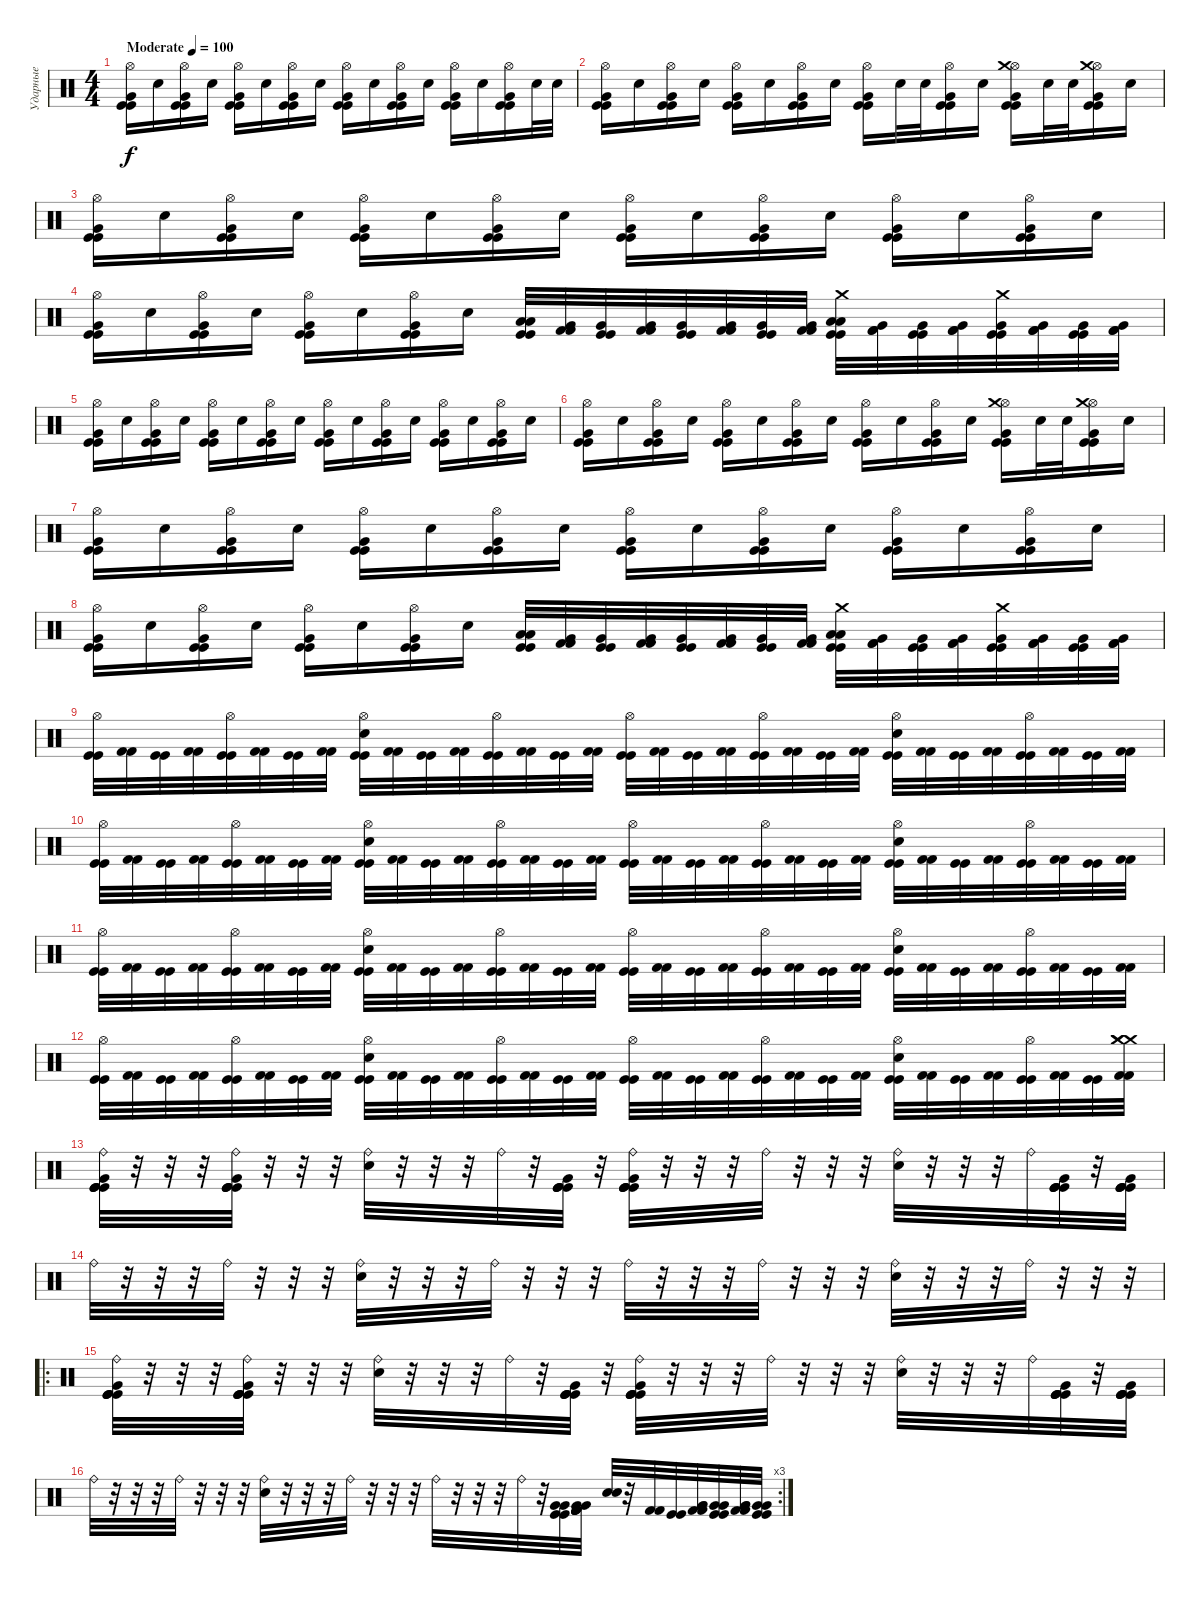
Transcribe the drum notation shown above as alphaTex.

\track ("Ударные" "Ударные") {instrument percussion}
\staff {score}
\articulation defaults
\ts (4 4)
\tempo (100 "Moderate")
\clef neutral
\ks c
("Kick (hit)" "Very Low Tom (hit)" "Kick (hit)" "Hi-Hat (open)").16{dy f} "Electric Snare (hit)".16 ("Kick (hit)" "Very Low Tom (hit)" "Kick (hit)" "Hi-Hat (open)").16 "Electric Snare (hit)".16 ("Kick (hit)" "Very Low Tom (hit)" "Kick (hit)" "Hi-Hat (open)").16 "Electric Snare (hit)".16 ("Kick (hit)" "Very Low Tom (hit)" "Kick (hit)" "Hi-Hat (open)").16 "Electric Snare (hit)".16 ("Kick (hit)" "Very Low Tom (hit)" "Kick (hit)" "Hi-Hat (open)").16 "Electric Snare (hit)".16 ("Kick (hit)" "Very Low Tom (hit)" "Kick (hit)" "Hi-Hat (open)").16 "Electric Snare (hit)".16 ("Kick (hit)" "Very Low Tom (hit)" "Kick (hit)" "Hi-Hat (open)").16 "Electric Snare (hit)".16 ("Kick (hit)" "Very Low Tom (hit)" "Kick (hit)" "Hi-Hat (open)").16 "Electric Snare (hit)".32 "Electric Snare (hit)".32 |
("Kick (hit)" "Very Low Tom (hit)" "Kick (hit)" "Hi-Hat (open)").16 "Electric Snare (hit)".16 ("Kick (hit)" "Very Low Tom (hit)" "Kick (hit)" "Hi-Hat (open)").16 "Electric Snare (hit)".16 ("Kick (hit)" "Very Low Tom (hit)" "Kick (hit)" "Hi-Hat (open)").16 "Electric Snare (hit)".16 ("Kick (hit)" "Very Low Tom (hit)" "Kick (hit)" "Hi-Hat (open)").16 "Electric Snare (hit)".16 ("Kick (hit)" "Very Low Tom (hit)" "Kick (hit)" "Hi-Hat (open)").16 "Electric Snare (hit)".32 "Electric Snare (hit)".32 ("Kick (hit)" "Very Low Tom (hit)" "Kick (hit)" "Hi-Hat (open)").16 "Electric Snare (hit)".16 ("Kick (hit)" "Very Low Tom (hit)" "Kick (hit)" "Hi-Hat (open)" "Crash medium (hit)").16 "Electric Snare (hit)".32 "Electric Snare (hit)".32 ("Kick (hit)" "Very Low Tom (hit)" "Kick (hit)" "Hi-Hat (open)" "Crash medium (hit)").16 "Electric Snare (hit)".16 |
("Kick (hit)" "Very Low Tom (hit)" "Kick (hit)" "Hi-Hat (open)").16 "Electric Snare (hit)".16 ("Kick (hit)" "Very Low Tom (hit)" "Kick (hit)" "Hi-Hat (open)").16 "Electric Snare (hit)".16 ("Kick (hit)" "Very Low Tom (hit)" "Kick (hit)" "Hi-Hat (open)").16 "Electric Snare (hit)".16 ("Kick (hit)" "Very Low Tom (hit)" "Kick (hit)" "Hi-Hat (open)").16 "Electric Snare (hit)".16 ("Kick (hit)" "Very Low Tom (hit)" "Kick (hit)" "Hi-Hat (open)").16 "Electric Snare (hit)".16 ("Kick (hit)" "Very Low Tom (hit)" "Kick (hit)" "Hi-Hat (open)").16 "Electric Snare (hit)".16 ("Kick (hit)" "Very Low Tom (hit)" "Kick (hit)" "Hi-Hat (open)").16 "Electric Snare (hit)".16 ("Kick (hit)" "Very Low Tom (hit)" "Kick (hit)" "Hi-Hat (open)").16 "Electric Snare (hit)".16 |
("Kick (hit)" "Very Low Tom (hit)" "Kick (hit)" "Hi-Hat (open)").16 "Electric Snare (hit)".16 ("Kick (hit)" "Very Low Tom (hit)" "Kick (hit)" "Hi-Hat (open)").16 "Electric Snare (hit)".16 ("Kick (hit)" "Very Low Tom (hit)" "Kick (hit)" "Hi-Hat (open)").16 "Electric Snare (hit)".16 ("Kick (hit)" "Very Low Tom (hit)" "Kick (hit)" "Hi-Hat (open)").16 "Electric Snare (hit)".16 ("Low Tom (hit)" "Kick (hit)" "Kick (hit)" "Low Tom (hit)").32 ("Very Low Tom (hit)" "Kick (hit) 2" "Kick (hit) 2").32 ("Very Low Tom (hit)" "Kick (hit)" "Kick (hit)").32 ("Very Low Tom (hit)" "Kick (hit) 2" "Kick (hit) 2").32 ("Very Low Tom (hit)" "Kick (hit)" "Kick (hit)").32 ("Very Low Tom (hit)" "Kick (hit) 2" "Kick (hit) 2").32 ("Very Low Tom (hit)" "Kick (hit)" "Kick (hit)").32 ("Very Low Tom (hit)" "Kick (hit) 2" "Kick (hit) 2").32 ("Low Tom (hit)" "Kick (hit)" "Kick (hit)" "Low Tom (hit)" "Crash medium (hit)").32 ("Very Low Tom (hit)" "Kick (hit) 2" "Kick (hit) 2").32 ("Very Low Tom (hit)" "Kick (hit)" "Kick (hit)").32 ("Very Low Tom (hit)" "Kick (hit) 2" "Kick (hit) 2").32 ("Very Low Tom (hit)" "Kick (hit)" "Kick (hit)" "Crash medium (hit)").32 ("Very Low Tom (hit)" "Kick (hit) 2" "Kick (hit) 2").32 ("Very Low Tom (hit)" "Kick (hit)" "Kick (hit)").32 ("Very Low Tom (hit)" "Kick (hit) 2" "Kick (hit) 2").32 |
("Kick (hit)" "Very Low Tom (hit)" "Kick (hit)" "Hi-Hat (open)").16 "Electric Snare (hit)".16 ("Kick (hit)" "Very Low Tom (hit)" "Kick (hit)" "Hi-Hat (open)").16 "Electric Snare (hit)".16 ("Kick (hit)" "Very Low Tom (hit)" "Kick (hit)" "Hi-Hat (open)").16 "Electric Snare (hit)".16 ("Kick (hit)" "Very Low Tom (hit)" "Kick (hit)" "Hi-Hat (open)").16 "Electric Snare (hit)".16 ("Kick (hit)" "Very Low Tom (hit)" "Kick (hit)" "Hi-Hat (open)").16 "Electric Snare (hit)".16 ("Kick (hit)" "Very Low Tom (hit)" "Kick (hit)" "Hi-Hat (open)").16 "Electric Snare (hit)".16 ("Kick (hit)" "Very Low Tom (hit)" "Kick (hit)" "Hi-Hat (open)").16 "Electric Snare (hit)".16 ("Kick (hit)" "Very Low Tom (hit)" "Kick (hit)" "Hi-Hat (open)").16 "Electric Snare (hit)".16 |
("Kick (hit)" "Very Low Tom (hit)" "Kick (hit)" "Hi-Hat (open)").16 "Electric Snare (hit)".16 ("Kick (hit)" "Very Low Tom (hit)" "Kick (hit)" "Hi-Hat (open)").16 "Electric Snare (hit)".16 ("Kick (hit)" "Very Low Tom (hit)" "Kick (hit)" "Hi-Hat (open)").16 "Electric Snare (hit)".16 ("Kick (hit)" "Very Low Tom (hit)" "Kick (hit)" "Hi-Hat (open)").16 "Electric Snare (hit)".16 ("Kick (hit)" "Very Low Tom (hit)" "Kick (hit)" "Hi-Hat (open)").16 "Electric Snare (hit)".16 ("Kick (hit)" "Very Low Tom (hit)" "Kick (hit)" "Hi-Hat (open)").16 "Electric Snare (hit)".16 ("Kick (hit)" "Very Low Tom (hit)" "Kick (hit)" "Hi-Hat (open)" "Crash medium (hit)").16 "Electric Snare (hit)".32 "Electric Snare (hit)".32 ("Kick (hit)" "Very Low Tom (hit)" "Kick (hit)" "Hi-Hat (open)" "Crash medium (hit)").16 "Electric Snare (hit)".16 |
("Kick (hit)" "Very Low Tom (hit)" "Kick (hit)" "Hi-Hat (open)").16 "Electric Snare (hit)".16 ("Kick (hit)" "Very Low Tom (hit)" "Kick (hit)" "Hi-Hat (open)").16 "Electric Snare (hit)".16 ("Kick (hit)" "Very Low Tom (hit)" "Kick (hit)" "Hi-Hat (open)").16 "Electric Snare (hit)".16 ("Kick (hit)" "Very Low Tom (hit)" "Kick (hit)" "Hi-Hat (open)").16 "Electric Snare (hit)".16 ("Kick (hit)" "Very Low Tom (hit)" "Kick (hit)" "Hi-Hat (open)").16 "Electric Snare (hit)".16 ("Kick (hit)" "Very Low Tom (hit)" "Kick (hit)" "Hi-Hat (open)").16 "Electric Snare (hit)".16 ("Kick (hit)" "Very Low Tom (hit)" "Kick (hit)" "Hi-Hat (open)").16 "Electric Snare (hit)".16 ("Kick (hit)" "Very Low Tom (hit)" "Kick (hit)" "Hi-Hat (open)").16 "Electric Snare (hit)".16 |
("Kick (hit)" "Very Low Tom (hit)" "Kick (hit)" "Hi-Hat (open)").16 "Electric Snare (hit)".16 ("Kick (hit)" "Very Low Tom (hit)" "Kick (hit)" "Hi-Hat (open)").16 "Electric Snare (hit)".16 ("Kick (hit)" "Very Low Tom (hit)" "Kick (hit)" "Hi-Hat (open)").16 "Electric Snare (hit)".16 ("Kick (hit)" "Very Low Tom (hit)" "Kick (hit)" "Hi-Hat (open)").16 "Electric Snare (hit)".16 ("Low Tom (hit)" "Kick (hit)" "Kick (hit)" "Low Tom (hit)").32 ("Very Low Tom (hit)" "Kick (hit) 2" "Kick (hit) 2").32 ("Very Low Tom (hit)" "Kick (hit)" "Kick (hit)").32 ("Very Low Tom (hit)" "Kick (hit) 2" "Kick (hit) 2").32 ("Very Low Tom (hit)" "Kick (hit)" "Kick (hit)").32 ("Very Low Tom (hit)" "Kick (hit) 2" "Kick (hit) 2").32 ("Very Low Tom (hit)" "Kick (hit)" "Kick (hit)").32 ("Very Low Tom (hit)" "Kick (hit) 2" "Kick (hit) 2").32 ("Low Tom (hit)" "Kick (hit)" "Kick (hit)" "Low Tom (hit)" "Crash medium (hit)").32 ("Very Low Tom (hit)" "Kick (hit) 2" "Kick (hit) 2").32 ("Very Low Tom (hit)" "Kick (hit)" "Kick (hit)").32 ("Very Low Tom (hit)" "Kick (hit) 2" "Kick (hit) 2").32 ("Very Low Tom (hit)" "Kick (hit)" "Kick (hit)" "Crash medium (hit)").32 ("Very Low Tom (hit)" "Kick (hit) 2" "Kick (hit) 2").32 ("Very Low Tom (hit)" "Kick (hit)" "Kick (hit)").32 ("Very Low Tom (hit)" "Kick (hit) 2" "Kick (hit) 2").32 |
("Hi-Hat (open)" "Kick (hit)" "Kick (hit)").32 ("Kick (hit) 2" "Kick (hit) 2").32 ("Kick (hit)" "Kick (hit)").32 ("Kick (hit) 2" "Kick (hit) 2").32 ("Hi-Hat (open)" "Kick (hit)" "Kick (hit)").32 ("Kick (hit) 2" "Kick (hit) 2").32 ("Kick (hit)" "Kick (hit)").32 ("Kick (hit) 2" "Kick (hit) 2").32 ("Hi-Hat (open)" "Kick (hit)" "Kick (hit)" "Electric Snare (hit)").32 ("Kick (hit) 2" "Kick (hit) 2").32 ("Kick (hit)" "Kick (hit)").32 ("Kick (hit) 2" "Kick (hit) 2").32 ("Hi-Hat (open)" "Kick (hit)" "Kick (hit)").32 ("Kick (hit) 2" "Kick (hit) 2").32 ("Kick (hit)" "Kick (hit)").32 ("Kick (hit) 2" "Kick (hit) 2").32 ("Hi-Hat (open)" "Kick (hit)" "Kick (hit)").32 ("Kick (hit) 2" "Kick (hit) 2").32 ("Kick (hit)" "Kick (hit)").32 ("Kick (hit) 2" "Kick (hit) 2").32 ("Hi-Hat (open)" "Kick (hit)" "Kick (hit)").32 ("Kick (hit) 2" "Kick (hit) 2").32 ("Kick (hit)" "Kick (hit)").32 ("Kick (hit) 2" "Kick (hit) 2").32 ("Hi-Hat (open)" "Kick (hit)" "Kick (hit)" "Electric Snare (hit)").32 ("Kick (hit) 2" "Kick (hit) 2").32 ("Kick (hit)" "Kick (hit)").32 ("Kick (hit) 2" "Kick (hit) 2").32 ("Hi-Hat (open)" "Kick (hit)" "Kick (hit)").32 ("Kick (hit) 2" "Kick (hit) 2").32 ("Kick (hit)" "Kick (hit)").32 ("Kick (hit) 2" "Kick (hit) 2").32 |
("Hi-Hat (open)" "Kick (hit)" "Kick (hit)").32 ("Kick (hit) 2" "Kick (hit) 2").32 ("Kick (hit)" "Kick (hit)").32 ("Kick (hit) 2" "Kick (hit) 2").32 ("Hi-Hat (open)" "Kick (hit)" "Kick (hit)").32 ("Kick (hit) 2" "Kick (hit) 2").32 ("Kick (hit)" "Kick (hit)").32 ("Kick (hit) 2" "Kick (hit) 2").32 ("Hi-Hat (open)" "Kick (hit)" "Kick (hit)" "Electric Snare (hit)").32 ("Kick (hit) 2" "Kick (hit) 2").32 ("Kick (hit)" "Kick (hit)").32 ("Kick (hit) 2" "Kick (hit) 2").32 ("Hi-Hat (open)" "Kick (hit)" "Kick (hit)").32 ("Kick (hit) 2" "Kick (hit) 2").32 ("Kick (hit)" "Kick (hit)").32 ("Kick (hit) 2" "Kick (hit) 2").32 ("Hi-Hat (open)" "Kick (hit)" "Kick (hit)").32 ("Kick (hit) 2" "Kick (hit) 2").32 ("Kick (hit)" "Kick (hit)").32 ("Kick (hit) 2" "Kick (hit) 2").32 ("Hi-Hat (open)" "Kick (hit)" "Kick (hit)").32 ("Kick (hit) 2" "Kick (hit) 2").32 ("Kick (hit)" "Kick (hit)").32 ("Kick (hit) 2" "Kick (hit) 2").32 ("Hi-Hat (open)" "Kick (hit)" "Kick (hit)" "Electric Snare (hit)").32 ("Kick (hit) 2" "Kick (hit) 2").32 ("Kick (hit)" "Kick (hit)").32 ("Kick (hit) 2" "Kick (hit) 2").32 ("Hi-Hat (open)" "Kick (hit)" "Kick (hit)").32 ("Kick (hit) 2" "Kick (hit) 2").32 ("Kick (hit)" "Kick (hit)").32 ("Kick (hit) 2" "Kick (hit) 2").32 |
("Hi-Hat (open)" "Kick (hit)" "Kick (hit)").32 ("Kick (hit) 2" "Kick (hit) 2").32 ("Kick (hit)" "Kick (hit)").32 ("Kick (hit) 2" "Kick (hit) 2").32 ("Hi-Hat (open)" "Kick (hit)" "Kick (hit)").32 ("Kick (hit) 2" "Kick (hit) 2").32 ("Kick (hit)" "Kick (hit)").32 ("Kick (hit) 2" "Kick (hit) 2").32 ("Hi-Hat (open)" "Kick (hit)" "Kick (hit)" "Electric Snare (hit)").32 ("Kick (hit) 2" "Kick (hit) 2").32 ("Kick (hit)" "Kick (hit)").32 ("Kick (hit) 2" "Kick (hit) 2").32 ("Hi-Hat (open)" "Kick (hit)" "Kick (hit)").32 ("Kick (hit) 2" "Kick (hit) 2").32 ("Kick (hit)" "Kick (hit)").32 ("Kick (hit) 2" "Kick (hit) 2").32 ("Hi-Hat (open)" "Kick (hit)" "Kick (hit)").32 ("Kick (hit) 2" "Kick (hit) 2").32 ("Kick (hit)" "Kick (hit)").32 ("Kick (hit) 2" "Kick (hit) 2").32 ("Hi-Hat (open)" "Kick (hit)" "Kick (hit)").32 ("Kick (hit) 2" "Kick (hit) 2").32 ("Kick (hit)" "Kick (hit)").32 ("Kick (hit) 2" "Kick (hit) 2").32 ("Hi-Hat (open)" "Kick (hit)" "Kick (hit)" "Electric Snare (hit)").32 ("Kick (hit) 2" "Kick (hit) 2").32 ("Kick (hit)" "Kick (hit)").32 ("Kick (hit) 2" "Kick (hit) 2").32 ("Hi-Hat (open)" "Kick (hit)" "Kick (hit)").32 ("Kick (hit) 2" "Kick (hit) 2").32 ("Kick (hit)" "Kick (hit)").32 ("Kick (hit) 2" "Kick (hit) 2").32 |
("Hi-Hat (open)" "Kick (hit)" "Kick (hit)").32 ("Kick (hit) 2" "Kick (hit) 2").32 ("Kick (hit)" "Kick (hit)").32 ("Kick (hit) 2" "Kick (hit) 2").32 ("Hi-Hat (open)" "Kick (hit)" "Kick (hit)").32 ("Kick (hit) 2" "Kick (hit) 2").32 ("Kick (hit)" "Kick (hit)").32 ("Kick (hit) 2" "Kick (hit) 2").32 ("Hi-Hat (open)" "Kick (hit)" "Kick (hit)" "Electric Snare (hit)").32 ("Kick (hit) 2" "Kick (hit) 2").32 ("Kick (hit)" "Kick (hit)").32 ("Kick (hit) 2" "Kick (hit) 2").32 ("Hi-Hat (open)" "Kick (hit)" "Kick (hit)").32 ("Kick (hit) 2" "Kick (hit) 2").32 ("Kick (hit)" "Kick (hit)").32 ("Kick (hit) 2" "Kick (hit) 2").32 ("Hi-Hat (open)" "Kick (hit)" "Kick (hit)").32 ("Kick (hit) 2" "Kick (hit) 2").32 ("Kick (hit)" "Kick (hit)").32 ("Kick (hit) 2" "Kick (hit) 2").32 ("Hi-Hat (open)" "Kick (hit)" "Kick (hit)").32 ("Kick (hit) 2" "Kick (hit) 2").32 ("Kick (hit)" "Kick (hit)").32 ("Kick (hit) 2" "Kick (hit) 2").32 ("Hi-Hat (open)" "Kick (hit)" "Kick (hit)" "Electric Snare (hit)").32 ("Kick (hit) 2" "Kick (hit) 2").32 ("Kick (hit)" "Kick (hit)").32 ("Kick (hit) 2" "Kick (hit) 2").32 ("Hi-Hat (open)" "Kick (hit)" "Kick (hit)").32 ("Kick (hit) 2" "Kick (hit) 2").32 ("Kick (hit)" "Kick (hit)").32 ("Kick (hit) 2" "Kick (hit) 2" "Crash medium (hit)" "Crash medium (hit)" "Crash medium (hit)").32 |
("Ride (bell)" "Kick (hit)" "Kick (hit)" "Very Low Tom (hit)" "Kick (hit)" "Kick (hit)").32 r.32 r.32 r.32 ("Ride (bell)" "Kick (hit)" "Kick (hit)" "Very Low Tom (hit)" "Kick (hit)" "Kick (hit)").32 r.32 r.32 r.32 ("Ride (bell)" "Electric Snare (hit)").32 r.32 r.32 r.32 "Ride (bell)".32 r.32 ("Kick (hit)" "Kick (hit)" "Very Low Tom (hit)" "Kick (hit)" "Kick (hit)").32 r.32 ("Ride (bell)" "Kick (hit)" "Kick (hit)" "Very Low Tom (hit)" "Kick (hit)" "Kick (hit)").32 r.32 r.32 r.32 "Ride (bell)".32 r.32 r.32 r.32 ("Ride (bell)" "Electric Snare (hit)").32 r.32 r.32 r.32 "Ride (bell)".32 ("Kick (hit)" "Kick (hit)" "Very Low Tom (hit)" "Kick (hit)" "Kick (hit)").32 r.32 ("Kick (hit)" "Kick (hit)" "Very Low Tom (hit)" "Kick (hit)" "Kick (hit)").32 |
"Ride (bell)".32 r.32 r.32 r.32 "Ride (bell)".32 r.32 r.32 r.32 ("Ride (bell)" "Electric Snare (hit)").32 r.32 r.32 r.32 "Ride (bell)".32 r.32 r.32 r.32 "Ride (bell)".32 r.32 r.32 r.32 "Ride (bell)".32 r.32 r.32 r.32 ("Ride (bell)" "Electric Snare (hit)").32 r.32 r.32 r.32 "Ride (bell)".32 r.32 r.32 r.32 |
\ro
("Ride (bell)" "Kick (hit)" "Kick (hit)" "Very Low Tom (hit)" "Kick (hit)" "Kick (hit)").32 r.32 r.32 r.32 ("Ride (bell)" "Kick (hit)" "Kick (hit)" "Very Low Tom (hit)" "Kick (hit)" "Kick (hit)").32 r.32 r.32 r.32 ("Ride (bell)" "Electric Snare (hit)").32 r.32 r.32 r.32 "Ride (bell)".32 r.32 ("Kick (hit)" "Kick (hit)" "Very Low Tom (hit)" "Kick (hit)" "Kick (hit)").32 r.32 ("Ride (bell)" "Kick (hit)" "Kick (hit)" "Very Low Tom (hit)" "Kick (hit)" "Kick (hit)").32 r.32 r.32 r.32 "Ride (bell)".32 r.32 r.32 r.32 ("Ride (bell)" "Electric Snare (hit)").32 r.32 r.32 r.32 "Ride (bell)".32 ("Kick (hit)" "Kick (hit)" "Very Low Tom (hit)" "Kick (hit)" "Kick (hit)").32 r.32 ("Kick (hit)" "Kick (hit)" "Very Low Tom (hit)" "Kick (hit)" "Kick (hit)").32 |
\rc 3 "Ride (bell)".32
r.32 r.32 r.32 "Ride (bell)".32 r.32 r.32 r.32 ("Ride (bell)" "Electric Snare (hit)").32 r.32 r.32 r.32 "Ride (bell)".32 r.32 r.32 r.32 "Ride (bell)".32 r.32 r.32 r.32 "Ride (bell)".32 r.32 ("Kick (hit)" "Very Low Tom (hit)" "Very Low Tom (hit)" "Kick (hit)").32 ("Kick (hit) 2" "Kick (hit) 2" "Very Low Tom (hit)" "Very Low Tom (hit)" "Kick (hit) 2" "Kick (hit) 2").32 ("Electric Snare (hit)" "Electric Snare (hit)").32 r.32 ("Kick (hit) 2" "Kick (hit) 2").32 ("Kick (hit)" "Kick (hit)").32 ("Very Low Tom (hit)" "Kick (hit) 2" "Kick (hit) 2" "Very Low Tom (hit)").32 ("Very Low Tom (hit)" "Kick (hit)" "Kick (hit)" "Very Low Tom (hit)").32 ("Very Low Tom (hit)" "Kick (hit) 2" "Kick (hit) 2" "Very Low Tom (hit)").32 ("Very Low Tom (hit)" "Kick (hit)" "Kick (hit)" "Very Low Tom (hit)").32
